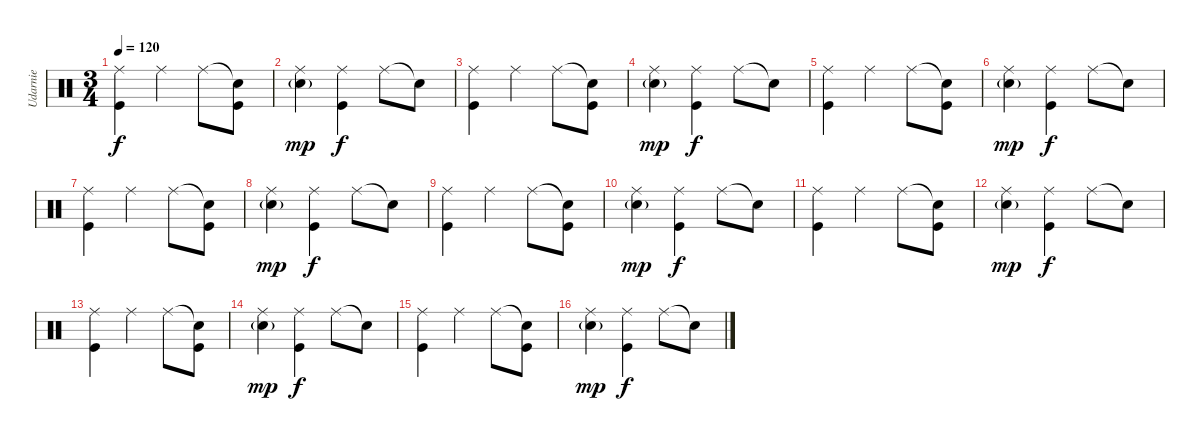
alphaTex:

\track ("Udarnie" "Udarnie") {instrument percussion}
\staff {score}
\articulation defaults
\ts (3 4)
\tempo 120
\clef neutral
\ks c
("Ride (middle)" "Kick (hit)").4{dy f} "Ride (middle)".4 "Ride (middle)".8 ("Snare (hit)"{t} "Kick (hit)").8 |
("Ride (middle)" "Electric Snare (hit)"{g}).4{dy mp} ("Ride (middle)" "Kick (hit)").4{dy f} "Ride (middle)".8 "Snare (hit)"{t}.8 |
("Ride (middle)" "Kick (hit)").4 "Ride (middle)".4 "Ride (middle)".8 ("Snare (hit)"{t} "Kick (hit)").8 |
("Ride (middle)" "Electric Snare (hit)"{g}).4{dy mp} ("Ride (middle)" "Kick (hit)").4{dy f} "Ride (middle)".8 "Snare (hit)"{t}.8 |
("Ride (middle)" "Kick (hit)").4 "Ride (middle)".4 "Ride (middle)".8 ("Snare (hit)"{t} "Kick (hit)").8 |
("Ride (middle)" "Electric Snare (hit)"{g}).4{dy mp} ("Ride (middle)" "Kick (hit)").4{dy f} "Ride (middle)".8 "Snare (hit)"{t}.8 |
("Ride (middle)" "Kick (hit)").4 "Ride (middle)".4 "Ride (middle)".8 ("Snare (hit)"{t} "Kick (hit)").8 |
("Ride (middle)" "Electric Snare (hit)"{g}).4{dy mp} ("Ride (middle)" "Kick (hit)").4{dy f} "Ride (middle)".8 "Snare (hit)"{t}.8 |
("Ride (middle)" "Kick (hit)").4 "Ride (middle)".4 "Ride (middle)".8 ("Snare (hit)"{t} "Kick (hit)").8 |
("Ride (middle)" "Electric Snare (hit)"{g}).4{dy mp} ("Ride (middle)" "Kick (hit)").4{dy f} "Ride (middle)".8 "Snare (hit)"{t}.8 |
("Ride (middle)" "Kick (hit)").4 "Ride (middle)".4 "Ride (middle)".8 ("Snare (hit)"{t} "Kick (hit)").8 |
("Ride (middle)" "Electric Snare (hit)"{g}).4{dy mp} ("Ride (middle)" "Kick (hit)").4{dy f} "Ride (middle)".8 "Snare (hit)"{t}.8 |
("Ride (middle)" "Kick (hit)").4 "Ride (middle)".4 "Ride (middle)".8 ("Snare (hit)"{t} "Kick (hit)").8 |
("Ride (middle)" "Electric Snare (hit)"{g}).4{dy mp} ("Ride (middle)" "Kick (hit)").4{dy f} "Ride (middle)".8 "Snare (hit)"{t}.8 |
("Ride (middle)" "Kick (hit)").4 "Ride (middle)".4 "Ride (middle)".8 ("Snare (hit)"{t} "Kick (hit)").8 |
("Ride (middle)" "Electric Snare (hit)"{g}).4{dy mp} ("Ride (middle)" "Kick (hit)").4{dy f} "Ride (middle)".8 "Snare (hit)"{t}.8
